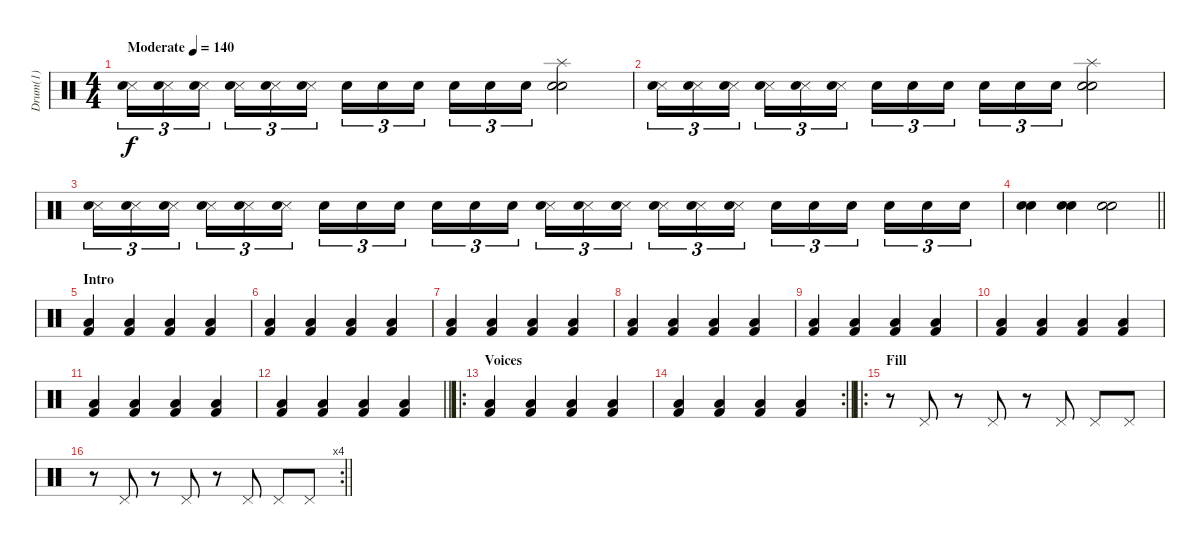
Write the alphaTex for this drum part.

\track ("Drum(1)" "Drum(1)") {instrument percussion}
\staff {score}
\articulation defaults
\ts (4 4)
\tempo (140 "Moderate")
\clef neutral
\ks c
("Metronome (hit)" "Electric Snare (hit)").16{tu (3 2) dy f} ("Metronome (hit)" "Electric Snare (hit)").16{tu (3 2)} ("Metronome (hit)" "Electric Snare (hit)").16{tu (3 2) beam splitsecondary} ("Metronome (hit)" "Electric Snare (hit)").16{tu (3 2)} ("Metronome (hit)" "Electric Snare (hit)").16{tu (3 2)} ("Metronome (hit)" "Electric Snare (hit)").16{tu (3 2)} "Electric Snare (hit)".16{tu (3 2)} "Electric Snare (hit)".16{tu (3 2)} "Electric Snare (hit)".16{tu (3 2) beam splitsecondary} "Electric Snare (hit)".16{tu (3 2)} "Electric Snare (hit)".16{tu (3 2)} "Electric Snare (hit)".16{tu (3 2)} ("Snare (hit) 2" "Electric Snare (hit)" "Splash (hit)").2 |
("Metronome (hit)" "Electric Snare (hit)").16{tu (3 2)} ("Metronome (hit)" "Electric Snare (hit)").16{tu (3 2)} ("Metronome (hit)" "Electric Snare (hit)").16{tu (3 2) beam splitsecondary} ("Metronome (hit)" "Electric Snare (hit)").16{tu (3 2)} ("Metronome (hit)" "Electric Snare (hit)").16{tu (3 2)} ("Metronome (hit)" "Electric Snare (hit)").16{tu (3 2)} "Electric Snare (hit)".16{tu (3 2)} "Electric Snare (hit)".16{tu (3 2)} "Electric Snare (hit)".16{tu (3 2) beam splitsecondary} "Electric Snare (hit)".16{tu (3 2)} "Electric Snare (hit)".16{tu (3 2)} "Electric Snare (hit)".16{tu (3 2)} ("Snare (hit) 2" "Electric Snare (hit)" "Splash (hit)").2 |
("Metronome (hit)" "Electric Snare (hit)").16{tu (3 2)} ("Metronome (hit)" "Electric Snare (hit)").16{tu (3 2)} ("Metronome (hit)" "Electric Snare (hit)").16{tu (3 2) beam splitsecondary} ("Metronome (hit)" "Electric Snare (hit)").16{tu (3 2)} ("Metronome (hit)" "Electric Snare (hit)").16{tu (3 2)} ("Metronome (hit)" "Electric Snare (hit)").16{tu (3 2)} "Electric Snare (hit)".16{tu (3 2)} "Electric Snare (hit)".16{tu (3 2)} "Electric Snare (hit)".16{tu (3 2) beam splitsecondary} "Electric Snare (hit)".16{tu (3 2)} "Electric Snare (hit)".16{tu (3 2)} "Electric Snare (hit)".16{tu (3 2)} ("Metronome (hit)" "Electric Snare (hit)").16{tu (3 2)} ("Metronome (hit)" "Electric Snare (hit)").16{tu (3 2)} ("Metronome (hit)" "Electric Snare (hit)").16{tu (3 2) beam splitsecondary} ("Metronome (hit)" "Electric Snare (hit)").16{tu (3 2)} ("Metronome (hit)" "Electric Snare (hit)").16{tu (3 2)} ("Metronome (hit)" "Electric Snare (hit)").16{tu (3 2)} "Electric Snare (hit)".16{tu (3 2)} "Electric Snare (hit)".16{tu (3 2)} "Electric Snare (hit)".16{tu (3 2) beam splitsecondary} "Electric Snare (hit)".16{tu (3 2)} "Electric Snare (hit)".16{tu (3 2)} "Electric Snare (hit)".16{tu (3 2)} |
\barLineRight lightlight
("Snare (hit) 2" "Electric Snare (hit)").4 ("Snare (hit) 2" "Electric Snare (hit)").4 ("Snare (hit) 2" "Electric Snare (hit)").2 |
\section ("" "Intro")
("Low Floor Tom (hit)" "Kick (hit) 2").4 ("Low Floor Tom (hit)" "Kick (hit) 2").4 ("Low Floor Tom (hit)" "Kick (hit) 2").4 ("Low Floor Tom (hit)" "Kick (hit) 2").4 |
("Low Floor Tom (hit)" "Kick (hit) 2").4 ("Low Floor Tom (hit)" "Kick (hit) 2").4 ("Low Floor Tom (hit)" "Kick (hit) 2").4 ("Low Floor Tom (hit)" "Kick (hit) 2").4 |
("Low Floor Tom (hit)" "Kick (hit) 2").4 ("Low Floor Tom (hit)" "Kick (hit) 2").4 ("Low Floor Tom (hit)" "Kick (hit) 2").4 ("Low Floor Tom (hit)" "Kick (hit) 2").4 |
("Low Floor Tom (hit)" "Kick (hit) 2").4 ("Low Floor Tom (hit)" "Kick (hit) 2").4 ("Low Floor Tom (hit)" "Kick (hit) 2").4 ("Low Floor Tom (hit)" "Kick (hit) 2").4 |
("Low Floor Tom (hit)" "Kick (hit) 2").4 ("Low Floor Tom (hit)" "Kick (hit) 2").4 ("Low Floor Tom (hit)" "Kick (hit) 2").4 ("Low Floor Tom (hit)" "Kick (hit) 2").4 |
("Low Floor Tom (hit)" "Kick (hit) 2").4 ("Low Floor Tom (hit)" "Kick (hit) 2").4 ("Low Floor Tom (hit)" "Kick (hit) 2").4 ("Low Floor Tom (hit)" "Kick (hit) 2").4 |
("Low Floor Tom (hit)" "Kick (hit) 2").4 ("Low Floor Tom (hit)" "Kick (hit) 2").4 ("Low Floor Tom (hit)" "Kick (hit) 2").4 ("Low Floor Tom (hit)" "Kick (hit) 2").4 |
\barLineRight lightlight
("Low Floor Tom (hit)" "Kick (hit) 2").4 ("Low Floor Tom (hit)" "Kick (hit) 2").4 ("Low Floor Tom (hit)" "Kick (hit) 2").4 ("Low Floor Tom (hit)" "Kick (hit) 2").4 |
\ro
\section ("" "Voices")
("Low Floor Tom (hit)" "Kick (hit) 2").4 ("Low Floor Tom (hit)" "Kick (hit) 2").4 ("Low Floor Tom (hit)" "Kick (hit) 2").4 ("Low Floor Tom (hit)" "Kick (hit) 2").4 |
\rc 2
\barLineRight lightlight
("Low Floor Tom (hit)" "Kick (hit) 2").4 ("Low Floor Tom (hit)" "Kick (hit) 2").4 ("Low Floor Tom (hit)" "Kick (hit) 2").4 ("Low Floor Tom (hit)" "Kick (hit) 2").4 |
\ro
\section ("" "Fill")
r.8 "Pedal Hi-Hat (hit)".8 r.8 "Pedal Hi-Hat (hit)".8 r.8 "Pedal Hi-Hat (hit)".8 "Pedal Hi-Hat (hit)".8 "Pedal Hi-Hat (hit)".8 |
\rc 4
\barLineRight lightlight
r.8 "Pedal Hi-Hat (hit)".8 r.8 "Pedal Hi-Hat (hit)".8 r.8 "Pedal Hi-Hat (hit)".8 "Pedal Hi-Hat (hit)".8 "Pedal Hi-Hat (hit)".8
